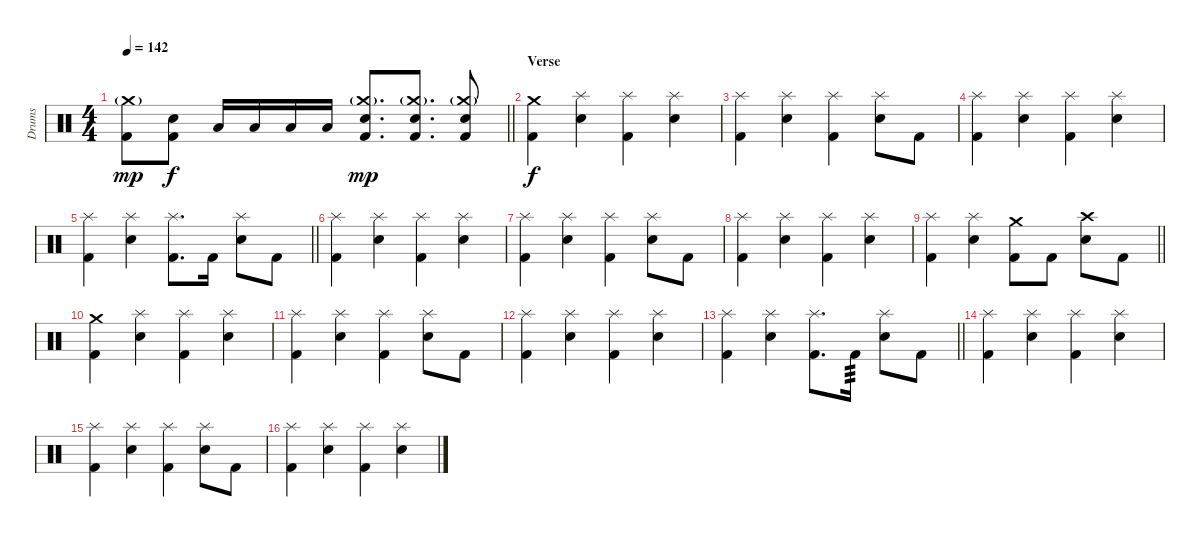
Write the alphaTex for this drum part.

\track ("Drums" "Drums") {instrument percussion}
\staff {score}
\articulation defaults
\ts (4 4)
\tempo 142
\clef neutral
\barLineRight lightlight
\ks c
("Kick (hit) 2" "Crash medium (hit)"{g}).8{dy mp} ("Kick (hit) 2" "Snare (hit) 2").8{dy f} "Low Tom (hit)".16 "Low Tom (hit)".16 "Low Tom (hit)".16 "Low Tom (hit)".16 ("Kick (hit) 2" "Snare (hit) 2" "Crash medium (hit)"{g}).8{d dy mp} ("Kick (hit) 2" "Snare (hit) 2" "Crash medium (hit)"{g}).8{d} ("Kick (hit) 2" "Snare (hit) 2" "Crash medium (hit)"{g}).8 |
\section ("" "Verse")
("Kick (hit) 2" "Crash medium (hit)").4{dy f} ("Snare (hit) 2" "Splash (hit)").4 ("Kick (hit) 2" "Splash (hit)").4 ("Snare (hit) 2" "Splash (hit)").4 |
("Kick (hit) 2" "Splash (hit)").4 ("Snare (hit) 2" "Splash (hit)").4 ("Kick (hit) 2" "Splash (hit)").4 ("Snare (hit) 2" "Splash (hit)").8 "Kick (hit) 2".8 |
("Kick (hit) 2" "Splash (hit)").4 ("Snare (hit) 2" "Splash (hit)").4 ("Kick (hit) 2" "Splash (hit)").4 ("Snare (hit) 2" "Splash (hit)").4 |
\barLineRight lightlight
("Kick (hit) 2" "Splash (hit)").4 ("Snare (hit) 2" "Splash (hit)").4 ("Kick (hit) 2" "Splash (hit)").8{d} "Kick (hit) 2".16 ("Snare (hit) 2" "Splash (hit)").8 "Kick (hit) 2".8 |
\section ("" "")
("Kick (hit) 2" "Splash (hit)").4 ("Snare (hit) 2" "Splash (hit)").4 ("Kick (hit) 2" "Splash (hit)").4 ("Snare (hit) 2" "Splash (hit)").4 |
("Kick (hit) 2" "Splash (hit)").4 ("Snare (hit) 2" "Splash (hit)").4 ("Kick (hit) 2" "Splash (hit)").4 ("Snare (hit) 2" "Splash (hit)").8 "Kick (hit) 2".8 |
("Kick (hit) 2" "Splash (hit)").4 ("Snare (hit) 2" "Splash (hit)").4 ("Kick (hit) 2" "Splash (hit)").4 ("Snare (hit) 2" "Splash (hit)").4 |
\barLineRight lightlight
("Kick (hit) 2" "Splash (hit)").4 ("Snare (hit) 2" "Splash (hit)").4 ("Kick (hit) 2" "Crash medium (hit)").8 "Kick (hit) 2".8 ("Snare (hit) 2" "Crash high (hit)").8 "Kick (hit) 2".8 |
\section ("" "")
("Kick (hit) 2" "Crash medium (hit)").4 ("Snare (hit) 2" "Splash (hit)").4 ("Kick (hit) 2" "Splash (hit)").4 ("Snare (hit) 2" "Splash (hit)").4 |
("Kick (hit) 2" "Splash (hit)").4 ("Snare (hit) 2" "Splash (hit)").4 ("Kick (hit) 2" "Splash (hit)").4 ("Snare (hit) 2" "Splash (hit)").8 "Kick (hit) 2".8 |
("Kick (hit) 2" "Splash (hit)").4 ("Snare (hit) 2" "Splash (hit)").4 ("Kick (hit) 2" "Splash (hit)").4 ("Snare (hit) 2" "Splash (hit)").4 |
\barLineRight lightlight
("Kick (hit) 2" "Splash (hit)").4 ("Snare (hit) 2" "Splash (hit)").4 ("Kick (hit) 2" "Splash (hit)").8{d} "Kick (hit) 2".16{tp 3} ("Snare (hit) 2" "Splash (hit)").8 "Kick (hit) 2".8 |
\section ("" "")
("Kick (hit) 2" "Splash (hit)").4 ("Snare (hit) 2" "Splash (hit)").4 ("Kick (hit) 2" "Splash (hit)").4 ("Snare (hit) 2" "Splash (hit)").4 |
("Kick (hit) 2" "Splash (hit)").4 ("Snare (hit) 2" "Splash (hit)").4 ("Kick (hit) 2" "Splash (hit)").4 ("Snare (hit) 2" "Splash (hit)").8 "Kick (hit) 2".8 |
("Kick (hit) 2" "Splash (hit)").4 ("Snare (hit) 2" "Splash (hit)").4 ("Kick (hit) 2" "Splash (hit)").4 ("Snare (hit) 2" "Splash (hit)").4
